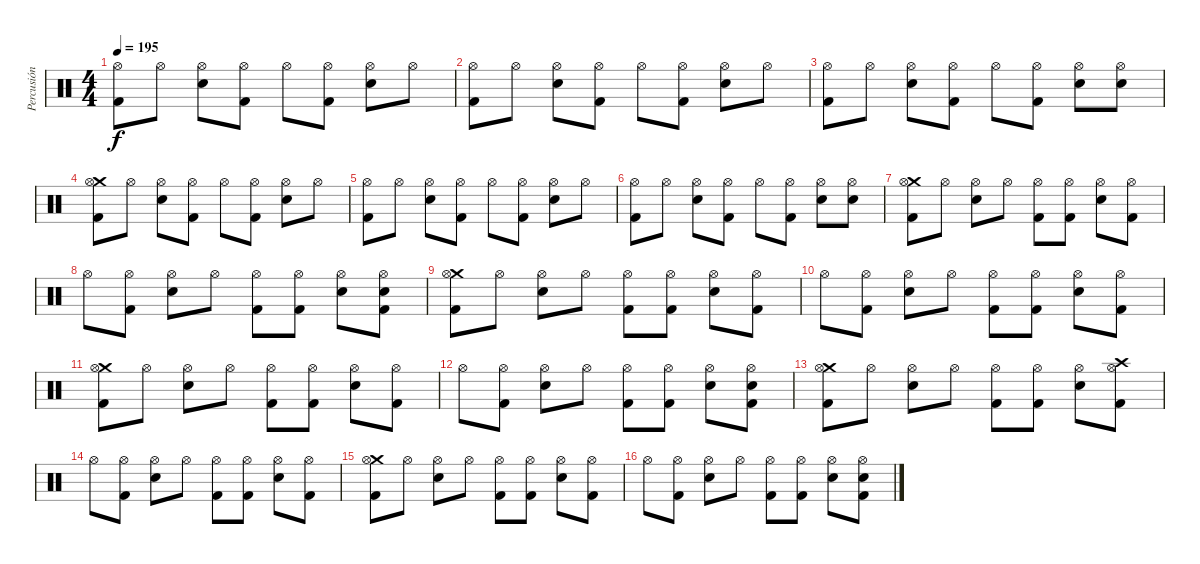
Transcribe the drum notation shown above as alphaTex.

\track ("Percusión" "Percusión") {instrument percussion}
\staff {score}
\articulation defaults
\ts (4 4)
\tempo 195
\clef neutral
\ks c
("Hi-Hat (open)" "Kick (hit) 2").8{dy f} "Hi-Hat (open)".8 ("Hi-Hat (open)" "Snare (hit) 2").8 ("Hi-Hat (open)" "Kick (hit) 2").8 "Hi-Hat (open)".8 ("Hi-Hat (open)" "Kick (hit) 2").8 ("Hi-Hat (open)" "Snare (hit) 2").8 "Hi-Hat (open)".8 |
("Hi-Hat (open)" "Kick (hit) 2").8 "Hi-Hat (open)".8 ("Hi-Hat (open)" "Snare (hit) 2").8 ("Hi-Hat (open)" "Kick (hit) 2").8 "Hi-Hat (open)".8 ("Hi-Hat (open)" "Kick (hit) 2").8 ("Hi-Hat (open)" "Snare (hit) 2").8 "Hi-Hat (open)".8 |
("Hi-Hat (open)" "Kick (hit) 2").8 "Hi-Hat (open)".8 ("Hi-Hat (open)" "Snare (hit) 2").8 ("Hi-Hat (open)" "Kick (hit) 2").8 "Hi-Hat (open)".8 ("Hi-Hat (open)" "Kick (hit) 2").8 ("Hi-Hat (open)" "Snare (hit) 2").8 ("Hi-Hat (open)" "Snare (hit) 2").8 |
("Crash medium (hit)" "Hi-Hat (open)" "Kick (hit) 2").8 "Hi-Hat (open)".8 ("Hi-Hat (open)" "Snare (hit) 2").8 ("Hi-Hat (open)" "Kick (hit) 2").8 "Hi-Hat (open)".8 ("Hi-Hat (open)" "Kick (hit) 2").8 ("Hi-Hat (open)" "Snare (hit) 2").8 "Hi-Hat (open)".8 |
("Hi-Hat (open)" "Kick (hit) 2").8 "Hi-Hat (open)".8 ("Hi-Hat (open)" "Snare (hit) 2").8 ("Hi-Hat (open)" "Kick (hit) 2").8 "Hi-Hat (open)".8 ("Hi-Hat (open)" "Kick (hit) 2").8 ("Hi-Hat (open)" "Snare (hit) 2").8 "Hi-Hat (open)".8 |
("Hi-Hat (open)" "Kick (hit) 2").8 "Hi-Hat (open)".8 ("Hi-Hat (open)" "Snare (hit) 2").8 ("Hi-Hat (open)" "Kick (hit) 2").8 "Hi-Hat (open)".8 ("Hi-Hat (open)" "Kick (hit) 2").8 ("Hi-Hat (open)" "Snare (hit) 2").8 ("Hi-Hat (open)" "Snare (hit) 2").8 |
("Crash medium (hit)" "Hi-Hat (open)" "Kick (hit) 2").8 "Hi-Hat (open)".8 ("Hi-Hat (open)" "Snare (hit) 2").8 "Hi-Hat (open)".8 ("Hi-Hat (open)" "Kick (hit) 2").8 ("Hi-Hat (open)" "Kick (hit) 2").8 ("Hi-Hat (open)" "Snare (hit) 2").8 ("Hi-Hat (open)" "Kick (hit) 2").8 |
"Hi-Hat (open)".8 ("Hi-Hat (open)" "Kick (hit) 2").8 ("Hi-Hat (open)" "Snare (hit) 2").8 "Hi-Hat (open)".8 ("Hi-Hat (open)" "Kick (hit) 2").8 ("Hi-Hat (open)" "Kick (hit) 2").8 ("Hi-Hat (open)" "Snare (hit) 2").8 ("Hi-Hat (open)" "Snare (hit) 2" "Kick (hit) 2").8 |
("Crash medium (hit)" "Hi-Hat (open)" "Kick (hit) 2").8 "Hi-Hat (open)".8 ("Hi-Hat (open)" "Snare (hit) 2").8 "Hi-Hat (open)".8 ("Hi-Hat (open)" "Kick (hit) 2").8 ("Hi-Hat (open)" "Kick (hit) 2").8 ("Hi-Hat (open)" "Snare (hit) 2").8 ("Hi-Hat (open)" "Kick (hit) 2").8 |
"Hi-Hat (open)".8 ("Hi-Hat (open)" "Kick (hit) 2").8 ("Hi-Hat (open)" "Snare (hit) 2").8 "Hi-Hat (open)".8 ("Hi-Hat (open)" "Kick (hit) 2").8 ("Hi-Hat (open)" "Kick (hit) 2").8 ("Hi-Hat (open)" "Snare (hit) 2").8 ("Hi-Hat (open)" "Kick (hit) 2").8 |
("Crash medium (hit)" "Hi-Hat (open)" "Kick (hit) 2").8 "Hi-Hat (open)".8 ("Hi-Hat (open)" "Snare (hit) 2").8 "Hi-Hat (open)".8 ("Hi-Hat (open)" "Kick (hit) 2").8 ("Hi-Hat (open)" "Kick (hit) 2").8 ("Hi-Hat (open)" "Snare (hit) 2").8 ("Hi-Hat (open)" "Kick (hit) 2").8 |
"Hi-Hat (open)".8 ("Hi-Hat (open)" "Kick (hit) 2").8 ("Hi-Hat (open)" "Snare (hit) 2").8 "Hi-Hat (open)".8 ("Hi-Hat (open)" "Kick (hit) 2").8 ("Hi-Hat (open)" "Kick (hit) 2").8 ("Hi-Hat (open)" "Snare (hit) 2").8 ("Hi-Hat (open)" "Snare (hit) 2" "Kick (hit) 2").8 |
("Crash medium (hit)" "Hi-Hat (open)" "Kick (hit) 2").8 "Hi-Hat (open)".8 ("Hi-Hat (open)" "Snare (hit) 2").8 "Hi-Hat (open)".8 ("Hi-Hat (open)" "Kick (hit) 2").8 ("Hi-Hat (open)" "Kick (hit) 2").8 ("Hi-Hat (open)" "Snare (hit) 2").8 ("Crash high (hit)" "Hi-Hat (open)" "Kick (hit) 2").8 |
"Hi-Hat (open)".8 ("Hi-Hat (open)" "Kick (hit) 2").8 ("Hi-Hat (open)" "Snare (hit) 2").8 "Hi-Hat (open)".8 ("Hi-Hat (open)" "Kick (hit) 2").8 ("Hi-Hat (open)" "Kick (hit) 2").8 ("Hi-Hat (open)" "Snare (hit) 2").8 ("Hi-Hat (open)" "Kick (hit) 2").8 |
("Crash medium (hit)" "Hi-Hat (open)" "Kick (hit) 2").8 "Hi-Hat (open)".8 ("Hi-Hat (open)" "Snare (hit) 2").8 "Hi-Hat (open)".8 ("Hi-Hat (open)" "Kick (hit) 2").8 ("Hi-Hat (open)" "Kick (hit) 2").8 ("Hi-Hat (open)" "Snare (hit) 2").8 ("Hi-Hat (open)" "Kick (hit) 2").8 |
"Hi-Hat (open)".8 ("Hi-Hat (open)" "Kick (hit) 2").8 ("Hi-Hat (open)" "Snare (hit) 2").8 "Hi-Hat (open)".8 ("Hi-Hat (open)" "Kick (hit) 2").8 ("Hi-Hat (open)" "Kick (hit) 2").8 ("Hi-Hat (open)" "Snare (hit) 2").8 ("Hi-Hat (open)" "Snare (hit) 2" "Kick (hit) 2").8
